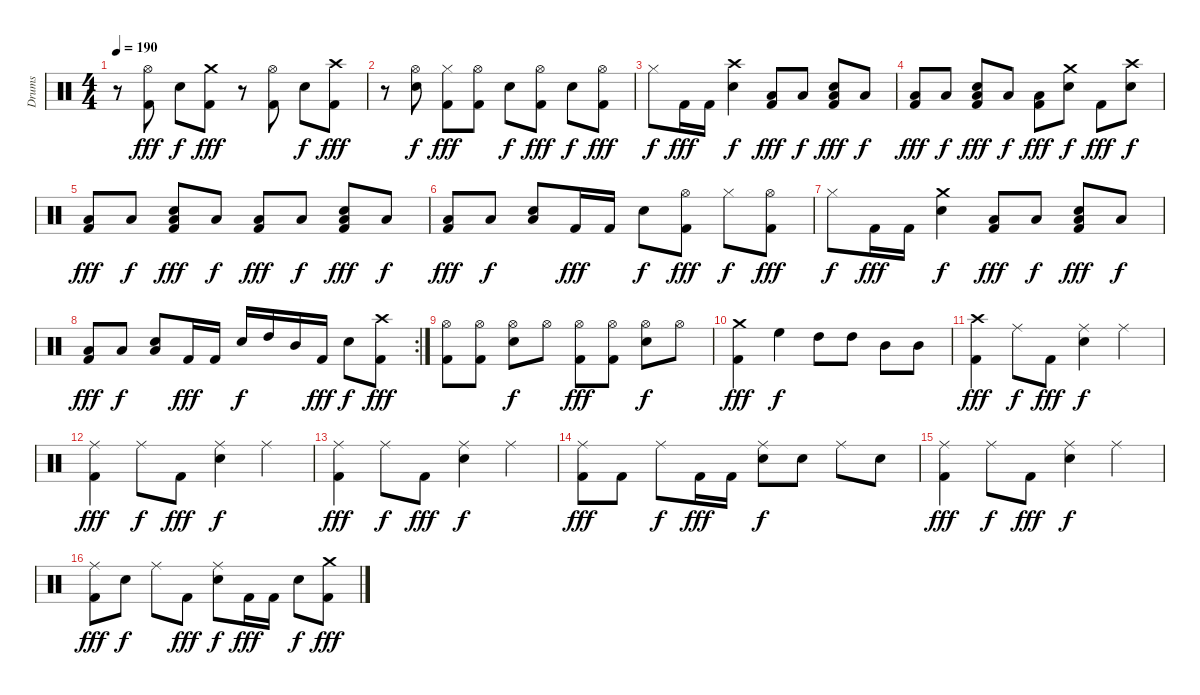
\track ("Drums" "Drums") {instrument percussion}
\staff {score}
\articulation defaults
\ts (4 4)
\tempo 190
\clef neutral
\ks c
r.8{dy fff} ("Hi-Hat (open)" "Kick (hit) 2").8 "Electric Snare (hit)".8{dy f} ("Crash medium (hit)" "Kick (hit) 2").8{dy fff} r.8 ("Hi-Hat (open)" "Kick (hit) 2").8 "Electric Snare (hit)".8{dy f} ("Crash high (hit)" "Kick (hit) 2").8{dy fff} |
r.8 ("Hi-Hat (open)" "Electric Snare (hit)").8{dy f} ("Hi-Hat (closed)" "Kick (hit) 2").8{dy fff} ("Hi-Hat (open)" "Kick (hit) 2").8 "Electric Snare (hit)".8{dy f} ("Hi-Hat (open)" "Kick (hit) 2").8{dy fff} "Electric Snare (hit)".8{dy f} ("Hi-Hat (open)" "Kick (hit) 2").8{dy fff} |
"Hi-Hat (closed)".8{dy f} "Kick (hit) 2".16{dy fff} "Kick (hit) 2".16 ("Crash high (hit)" "Electric Snare (hit)").4{dy f} ("Low Tom (hit)" "Kick (hit) 2").8{dy fff} "Low Tom (hit)".8{dy f} ("Electric Snare (hit)" "Low Tom (hit)" "Kick (hit) 2").8{dy fff} "Low Tom (hit)".8{dy f} |
("Low Tom (hit)" "Kick (hit) 2").8{dy fff} "Low Tom (hit)".8{dy f} ("Electric Snare (hit)" "Low Tom (hit)" "Kick (hit) 2").8{dy fff} "Low Tom (hit)".8{dy f} ("Low Tom (hit)" "Kick (hit) 2").8{dy fff} ("Crash medium (hit)" "Electric Snare (hit)").8{dy f} "Kick (hit) 2".8{dy fff} ("Crash high (hit)" "Electric Snare (hit)").8{dy f} |
("Low Tom (hit)" "Kick (hit) 2").8{dy fff} "Low Tom (hit)".8{dy f} ("Electric Snare (hit)" "Low Tom (hit)" "Kick (hit) 2").8{dy fff} "Low Tom (hit)".8{dy f} ("Low Tom (hit)" "Kick (hit) 2").8{dy fff} "Low Tom (hit)".8{dy f} ("Electric Snare (hit)" "Low Tom (hit)" "Kick (hit) 2").8{dy fff} "Low Tom (hit)".8{dy f} |
("Low Tom (hit)" "Kick (hit) 2").8{dy fff} "Low Tom (hit)".8{dy f} ("Electric Snare (hit)" "Low Tom (hit)").8 "Kick (hit) 2".16{dy fff} "Kick (hit) 2".16 "Electric Snare (hit)".8{dy f} ("Hi-Hat (open)" "Kick (hit) 2").8{dy fff} "Hi-Hat (closed)".8{dy f} ("Hi-Hat (open)" "Kick (hit) 2").8{dy fff} |
"Hi-Hat (closed)".8{dy f} "Kick (hit) 2".16{dy fff} "Kick (hit) 2".16 ("Crash medium (hit)" "Electric Snare (hit)").4{dy f} ("Low Tom (hit)" "Kick (hit) 2").8{dy fff} "Low Tom (hit)".8{dy f} ("Low Tom (hit)" "Electric Snare (hit)" "Kick (hit) 2").8{dy fff} "Low Tom (hit)".8{dy f} |
\rc 2
("Low Tom (hit)" "Kick (hit) 2").8{dy fff} "Low Tom (hit)".8{dy f} ("Low Tom (hit)" "Electric Snare (hit)").8 "Kick (hit) 2".16{dy fff} "Kick (hit) 2".16 "Electric Snare (hit)".16{dy f} "High Tom (hit)".16 "Mid Tom (hit)".16 "Kick (hit) 2".16{dy fff} "Electric Snare (hit)".8{dy f} ("Crash high (hit)" "Kick (hit) 2").8{dy fff} |
("Hi-Hat (open)" "Kick (hit) 2").8 ("Hi-Hat (open)" "Kick (hit) 2").8 ("Hi-Hat (open)" "Electric Snare (hit)").8{dy f} "Hi-Hat (open)".8 ("Hi-Hat (open)" "Kick (hit) 2").8{dy fff} ("Hi-Hat (open)" "Kick (hit) 2").8 ("Hi-Hat (open)" "Electric Snare (hit)").8{dy f} "Hi-Hat (open)".8 |
("Crash medium (hit)" "Kick (hit) 2").4{dy fff} "High Floor Tom (hit)".4{dy f} "High Tom (hit)".8 "High Tom (hit)".8 "Mid Tom (hit)".8 "Mid Tom (hit)".8 |
("Crash high (hit)" "Kick (hit) 2").4{dy fff} "Ride (middle)".8{dy f} "Kick (hit) 2".8{dy fff} ("Ride (middle)" "Electric Snare (hit)").4{dy f} "Ride (middle)".4 |
("Ride (middle)" "Kick (hit) 2").4{dy fff} "Ride (middle)".8{dy f} "Kick (hit) 2".8{dy fff} ("Ride (middle)" "Electric Snare (hit)").4{dy f} "Ride (middle)".4 |
("Ride (middle)" "Kick (hit) 2").4{dy fff} "Ride (middle)".8{dy f} "Kick (hit) 2".8{dy fff} ("Ride (middle)" "Electric Snare (hit)").4{dy f} "Ride (middle)".4 |
("Ride (middle)" "Kick (hit) 2").8{dy fff} "Kick (hit) 2".8 "Ride (middle)".8{dy f} "Kick (hit) 2".16{dy fff} "Kick (hit) 2".16 ("Ride (middle)" "Electric Snare (hit)").8{dy f} "Electric Snare (hit)".8 "Ride (middle)".8 "Electric Snare (hit)".8 |
("Ride (middle)" "Kick (hit) 2").4{dy fff} "Ride (middle)".8{dy f} "Kick (hit) 2".8{dy fff} ("Ride (middle)" "Electric Snare (hit)").4{dy f} "Ride (middle)".4 |
("Ride (middle)" "Kick (hit) 2").8{dy fff} "Electric Snare (hit)".8{dy f} "Ride (middle)".8 "Kick (hit) 2".8{dy fff} ("Ride (middle)" "Electric Snare (hit)").8{dy f} "Kick (hit) 2".16{dy fff} "Kick (hit) 2".16 "Electric Snare (hit)".8{dy f} ("Crash medium (hit)" "Kick (hit) 2").8{dy fff}
